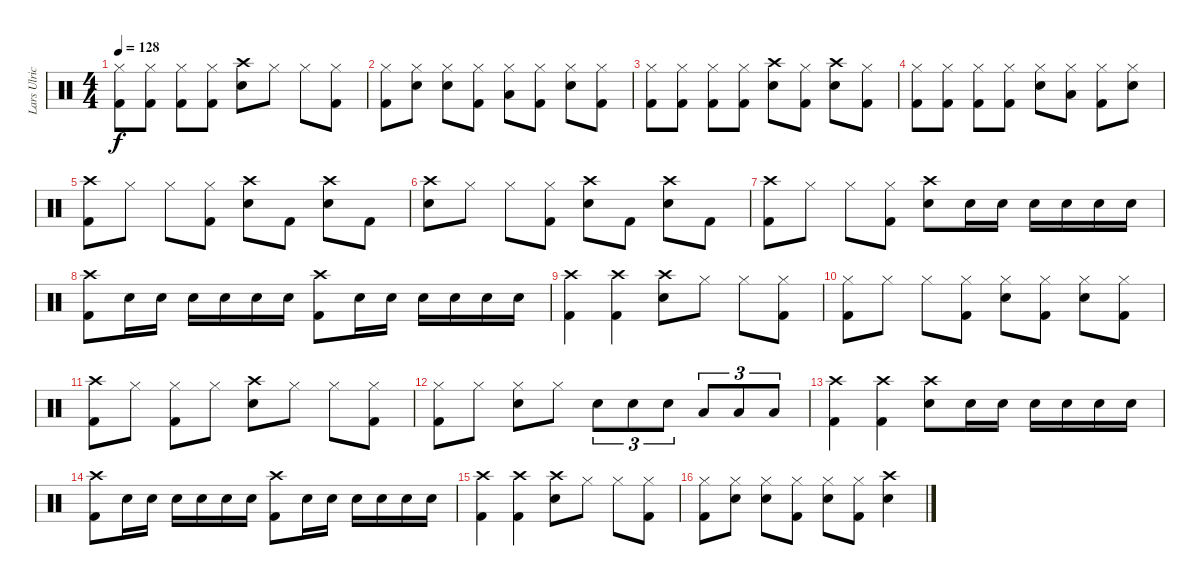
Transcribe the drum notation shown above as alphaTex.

\track ("Lars Ulrich" "Lars Ulric") {instrument percussion}
\staff {score}
\articulation defaults
\ts (4 4)
\tempo 128
\clef neutral
\ks c
("Hi-Hat (closed)" "Kick (hit) 2").8{dy f} ("Hi-Hat (closed)" "Kick (hit) 2").8 ("Hi-Hat (closed)" "Kick (hit) 2").8 ("Hi-Hat (closed)" "Kick (hit) 2").8 ("Crash high (hit)" "Electric Snare (hit)").8 "Hi-Hat (closed)".8 "Hi-Hat (closed)".8 ("Hi-Hat (closed)" "Kick (hit) 2").8 |
("Hi-Hat (closed)" "Kick (hit) 2").8 ("Hi-Hat (closed)" "Electric Snare (hit)").8 ("Hi-Hat (closed)" "Electric Snare (hit)").8 ("Hi-Hat (closed)" "Kick (hit) 2").8 ("Hi-Hat (closed)" "Low Floor Tom (hit)").8 ("Hi-Hat (closed)" "Kick (hit) 2").8 ("Hi-Hat (closed)" "Electric Snare (hit)").8 ("Hi-Hat (closed)" "Kick (hit) 2").8 |
("Hi-Hat (closed)" "Kick (hit) 2").8 ("Hi-Hat (closed)" "Kick (hit) 2").8 ("Hi-Hat (closed)" "Kick (hit) 2").8 ("Hi-Hat (closed)" "Kick (hit) 2").8 ("Crash high (hit)" "Electric Snare (hit)").8 ("Hi-Hat (closed)" "Kick (hit) 2").8 ("Crash high (hit)" "Electric Snare (hit)").8 ("Hi-Hat (closed)" "Kick (hit) 2").8 |
("Hi-Hat (closed)" "Kick (hit) 2").8 ("Hi-Hat (closed)" "Kick (hit) 2").8 ("Hi-Hat (closed)" "Kick (hit) 2").8 ("Hi-Hat (closed)" "Kick (hit) 2").8 ("Hi-Hat (closed)" "Electric Snare (hit)").8 ("Hi-Hat (closed)" "Low Floor Tom (hit)").8 ("Hi-Hat (closed)" "Kick (hit) 2").8 ("Hi-Hat (closed)" "Electric Snare (hit)").8 |
("Crash high (hit)" "Kick (hit) 2").8 "Hi-Hat (closed)".8 "Hi-Hat (closed)".8 ("Hi-Hat (closed)" "Kick (hit) 2").8 ("Crash high (hit)" "Electric Snare (hit)").8 "Kick (hit) 2".8 ("Crash high (hit)" "Electric Snare (hit)").8 "Kick (hit) 2".8 |
("Crash high (hit)" "Electric Snare (hit)").8 "Hi-Hat (closed)".8 "Hi-Hat (closed)".8 ("Hi-Hat (closed)" "Kick (hit) 2").8 ("Crash high (hit)" "Electric Snare (hit)").8 "Kick (hit) 2".8 ("Crash high (hit)" "Electric Snare (hit)").8 "Kick (hit) 2".8 |
("Crash high (hit)" "Kick (hit) 2").8 "Hi-Hat (closed)".8 "Hi-Hat (closed)".8 ("Hi-Hat (closed)" "Kick (hit) 2").8 ("Crash high (hit)" "Electric Snare (hit)").8 "Electric Snare (hit)".16 "Electric Snare (hit)".16 "Electric Snare (hit)".16 "Electric Snare (hit)".16 "Electric Snare (hit)".16 "Electric Snare (hit)".16 |
("Crash high (hit)" "Kick (hit) 2").8 "Electric Snare (hit)".16 "Electric Snare (hit)".16 "Electric Snare (hit)".16 "Electric Snare (hit)".16 "Electric Snare (hit)".16 "Electric Snare (hit)".16 ("Crash high (hit)" "Kick (hit) 2").8 "Electric Snare (hit)".16 "Electric Snare (hit)".16 "Electric Snare (hit)".16 "Electric Snare (hit)".16 "Electric Snare (hit)".16 "Electric Snare (hit)".16 |
("Crash high (hit)" "Kick (hit) 2").4 ("Crash high (hit)" "Kick (hit) 2").4 ("Crash high (hit)" "Electric Snare (hit)").8 "Hi-Hat (closed)".8 "Hi-Hat (closed)".8 ("Hi-Hat (closed)" "Kick (hit) 2").8 |
("Hi-Hat (closed)" "Kick (hit) 2").8 "Hi-Hat (closed)".8 "Hi-Hat (closed)".8 ("Hi-Hat (closed)" "Kick (hit) 2").8 ("Hi-Hat (closed)" "Electric Snare (hit)").8 ("Hi-Hat (closed)" "Kick (hit) 2").8 ("Hi-Hat (closed)" "Electric Snare (hit)").8 ("Hi-Hat (closed)" "Kick (hit) 2").8 |
("Crash high (hit)" "Kick (hit) 2").8 "Hi-Hat (closed)".8 ("Hi-Hat (closed)" "Kick (hit) 2").8 "Hi-Hat (closed)".8 ("Crash high (hit)" "Electric Snare (hit)").8 "Hi-Hat (closed)".8 "Hi-Hat (closed)".8 ("Hi-Hat (closed)" "Kick (hit) 2").8 |
("Hi-Hat (closed)" "Kick (hit) 2").8 "Hi-Hat (closed)".8 ("Hi-Hat (closed)" "Electric Snare (hit)").8 "Hi-Hat (closed)".8 "Electric Snare (hit)".8{tu (3 2)} "Electric Snare (hit)".8{tu (3 2)} "Electric Snare (hit)".8{tu (3 2)} "Low Floor Tom (hit)".8{tu (3 2)} "Low Floor Tom (hit)".8{tu (3 2)} "Low Floor Tom (hit)".8{tu (3 2)} |
("Crash high (hit)" "Kick (hit) 2").4 ("Crash high (hit)" "Kick (hit) 2").4 ("Crash high (hit)" "Electric Snare (hit)").8 "Electric Snare (hit)".16 "Electric Snare (hit)".16 "Electric Snare (hit)".16 "Electric Snare (hit)".16 "Electric Snare (hit)".16 "Electric Snare (hit)".16 |
("Crash high (hit)" "Kick (hit) 2").8 "Electric Snare (hit)".16 "Electric Snare (hit)".16 "Electric Snare (hit)".16 "Electric Snare (hit)".16 "Electric Snare (hit)".16 "Electric Snare (hit)".16 ("Crash high (hit)" "Kick (hit) 2").8 "Electric Snare (hit)".16 "Electric Snare (hit)".16 "Electric Snare (hit)".16 "Electric Snare (hit)".16 "Electric Snare (hit)".16 "Electric Snare (hit)".16 |
("Crash high (hit)" "Kick (hit) 2").4 ("Crash high (hit)" "Kick (hit) 2").4 ("Crash high (hit)" "Electric Snare (hit)").8 "Hi-Hat (closed)".8 "Hi-Hat (closed)".8 ("Hi-Hat (closed)" "Kick (hit) 2").8 |
("Hi-Hat (closed)" "Kick (hit) 2").8 ("Hi-Hat (closed)" "Electric Snare (hit)").8 ("Hi-Hat (closed)" "Electric Snare (hit)").8 ("Hi-Hat (closed)" "Kick (hit) 2").8 ("Hi-Hat (closed)" "Electric Snare (hit)").8 ("Hi-Hat (closed)" "Kick (hit) 2").8 ("Crash high (hit)" "Electric Snare (hit)").4
